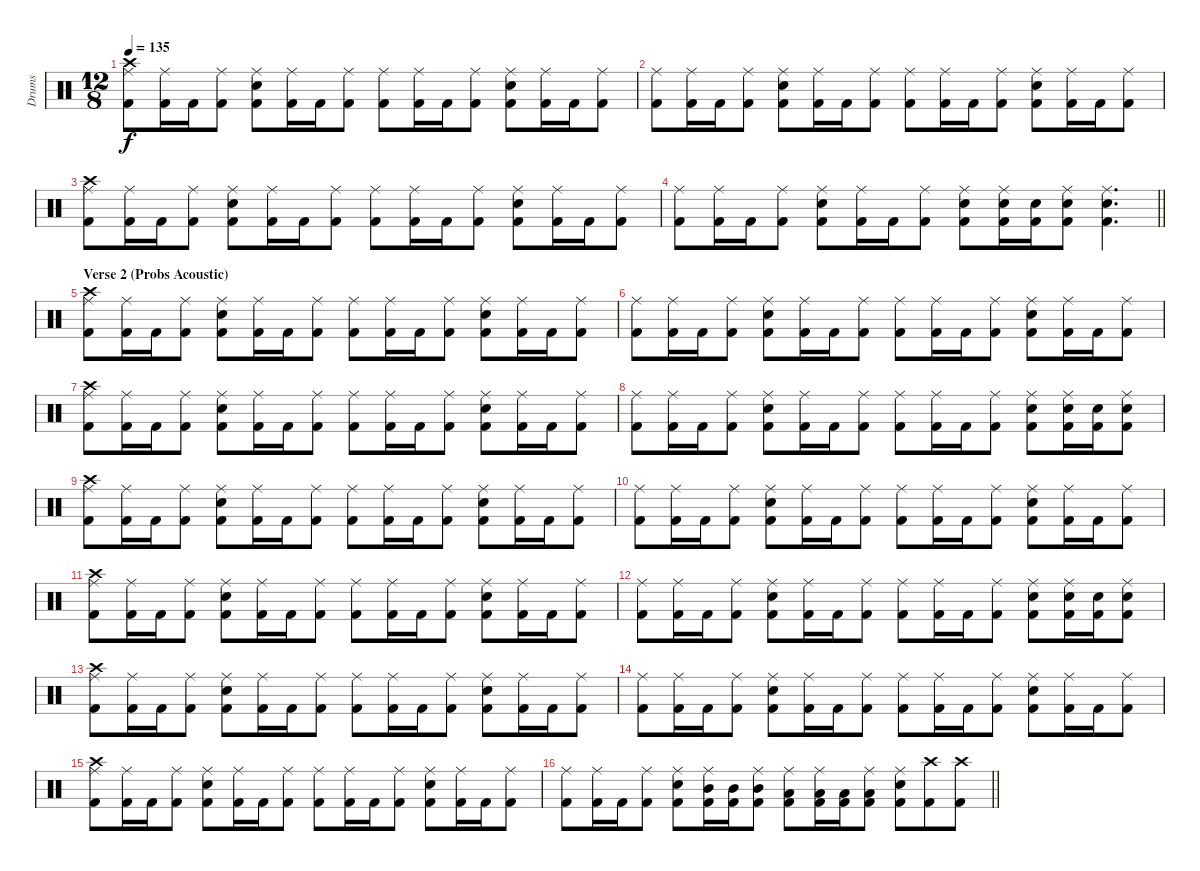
\track ("Drums" "Drums") {instrument percussion}
\staff {score}
\articulation defaults
\ts (12 8)
\tempo 135
\clef neutral
\ks c
("Crash high (hit)" "Ride (middle)" "Kick (hit) 2").8{dy f} ("Ride (middle)" "Kick (hit) 2").16 "Kick (hit) 2".16 ("Ride (middle)" "Kick (hit) 2").8 ("Ride (middle)" "Snare (hit) 2" "Kick (hit) 2").8 ("Ride (middle)" "Kick (hit) 2").16 "Kick (hit) 2".16 ("Ride (middle)" "Kick (hit) 2").8 ("Ride (middle)" "Kick (hit) 2").8 ("Ride (middle)" "Kick (hit) 2").16 "Kick (hit) 2".16 ("Ride (middle)" "Kick (hit) 2").8 ("Ride (middle)" "Snare (hit) 2" "Kick (hit) 2").8 ("Ride (middle)" "Kick (hit) 2").16 "Kick (hit) 2".16 ("Ride (middle)" "Kick (hit) 2").8 |
("Ride (middle)" "Kick (hit) 2").8 ("Ride (middle)" "Kick (hit) 2").16 "Kick (hit) 2".16 ("Ride (middle)" "Kick (hit) 2").8 ("Ride (middle)" "Snare (hit) 2" "Kick (hit) 2").8 ("Ride (middle)" "Kick (hit) 2").16 "Kick (hit) 2".16 ("Ride (middle)" "Kick (hit) 2").8 ("Ride (middle)" "Kick (hit) 2").8 ("Ride (middle)" "Kick (hit) 2").16 "Kick (hit) 2".16 ("Ride (middle)" "Kick (hit) 2").8 ("Ride (middle)" "Snare (hit) 2" "Kick (hit) 2").8 ("Ride (middle)" "Kick (hit) 2").16 "Kick (hit) 2".16 ("Ride (middle)" "Kick (hit) 2").8 |
("Crash high (hit)" "Ride (middle)" "Kick (hit) 2").8 ("Ride (middle)" "Kick (hit) 2").16 "Kick (hit) 2".16 ("Ride (middle)" "Kick (hit) 2").8 ("Ride (middle)" "Snare (hit) 2" "Kick (hit) 2").8 ("Ride (middle)" "Kick (hit) 2").16 "Kick (hit) 2".16 ("Ride (middle)" "Kick (hit) 2").8 ("Ride (middle)" "Kick (hit) 2").8 ("Ride (middle)" "Kick (hit) 2").16 "Kick (hit) 2".16 ("Ride (middle)" "Kick (hit) 2").8 ("Ride (middle)" "Snare (hit) 2" "Kick (hit) 2").8 ("Ride (middle)" "Kick (hit) 2").16 "Kick (hit) 2".16 ("Ride (middle)" "Kick (hit) 2").8 |
\barLineRight lightlight
("Ride (middle)" "Kick (hit) 2").8 ("Ride (middle)" "Kick (hit) 2").16 "Kick (hit) 2".16 ("Ride (middle)" "Kick (hit) 2").8 ("Ride (middle)" "Snare (hit) 2" "Kick (hit) 2").8 ("Ride (middle)" "Kick (hit) 2").16 "Kick (hit) 2".16 ("Ride (middle)" "Kick (hit) 2").8 ("Ride (middle)" "Snare (hit) 2" "Kick (hit) 2").8 ("Ride (middle)" "Snare (hit) 2" "Kick (hit) 2").16 ("Snare (hit) 2" "Kick (hit) 2").16 ("Ride (middle)" "Snare (hit) 2" "Kick (hit) 2").8 ("Ride (middle)" "Snare (hit) 2" "Kick (hit) 2").4{d} |
\section ("" "Verse 2 (Probs Acoustic)")
("Crash high (hit)" "Ride (middle)" "Kick (hit) 2").8 ("Ride (middle)" "Kick (hit) 2").16 "Kick (hit) 2".16 ("Ride (middle)" "Kick (hit) 2").8 ("Ride (middle)" "Snare (hit) 2" "Kick (hit) 2").8 ("Ride (middle)" "Kick (hit) 2").16 "Kick (hit) 2".16 ("Ride (middle)" "Kick (hit) 2").8 ("Ride (middle)" "Kick (hit) 2").8 ("Ride (middle)" "Kick (hit) 2").16 "Kick (hit) 2".16 ("Ride (middle)" "Kick (hit) 2").8 ("Ride (middle)" "Snare (hit) 2" "Kick (hit) 2").8 ("Ride (middle)" "Kick (hit) 2").16 "Kick (hit) 2".16 ("Ride (middle)" "Kick (hit) 2").8 |
("Ride (middle)" "Kick (hit) 2").8 ("Ride (middle)" "Kick (hit) 2").16 "Kick (hit) 2".16 ("Ride (middle)" "Kick (hit) 2").8 ("Ride (middle)" "Snare (hit) 2" "Kick (hit) 2").8 ("Ride (middle)" "Kick (hit) 2").16 "Kick (hit) 2".16 ("Ride (middle)" "Kick (hit) 2").8 ("Ride (middle)" "Kick (hit) 2").8 ("Ride (middle)" "Kick (hit) 2").16 "Kick (hit) 2".16 ("Ride (middle)" "Kick (hit) 2").8 ("Ride (middle)" "Snare (hit) 2" "Kick (hit) 2").8 ("Ride (middle)" "Kick (hit) 2").16 "Kick (hit) 2".16 ("Ride (middle)" "Kick (hit) 2").8 |
("Crash high (hit)" "Ride (middle)" "Kick (hit) 2").8 ("Ride (middle)" "Kick (hit) 2").16 "Kick (hit) 2".16 ("Ride (middle)" "Kick (hit) 2").8 ("Ride (middle)" "Snare (hit) 2" "Kick (hit) 2").8 ("Ride (middle)" "Kick (hit) 2").16 "Kick (hit) 2".16 ("Ride (middle)" "Kick (hit) 2").8 ("Ride (middle)" "Kick (hit) 2").8 ("Ride (middle)" "Kick (hit) 2").16 "Kick (hit) 2".16 ("Ride (middle)" "Kick (hit) 2").8 ("Ride (middle)" "Snare (hit) 2" "Kick (hit) 2").8 ("Ride (middle)" "Kick (hit) 2").16 "Kick (hit) 2".16 ("Ride (middle)" "Kick (hit) 2").8 |
("Ride (middle)" "Kick (hit) 2").8 ("Ride (middle)" "Kick (hit) 2").16 "Kick (hit) 2".16 ("Ride (middle)" "Kick (hit) 2").8 ("Ride (middle)" "Snare (hit) 2" "Kick (hit) 2").8 ("Ride (middle)" "Kick (hit) 2").16 "Kick (hit) 2".16 ("Ride (middle)" "Kick (hit) 2").8 ("Ride (middle)" "Kick (hit) 2").8 ("Ride (middle)" "Kick (hit) 2").16 "Kick (hit) 2".16 ("Ride (middle)" "Kick (hit) 2").8 ("Ride (middle)" "Snare (hit) 2" "Kick (hit) 2").8 ("Ride (middle)" "Snare (hit) 2" "Kick (hit) 2").16 ("Snare (hit) 2" "Kick (hit) 2").16 ("Ride (middle)" "Snare (hit) 2" "Kick (hit) 2").8 |
("Crash high (hit)" "Ride (middle)" "Kick (hit) 2").8 ("Ride (middle)" "Kick (hit) 2").16 "Kick (hit) 2".16 ("Ride (middle)" "Kick (hit) 2").8 ("Ride (middle)" "Snare (hit) 2" "Kick (hit) 2").8 ("Ride (middle)" "Kick (hit) 2").16 "Kick (hit) 2".16 ("Ride (middle)" "Kick (hit) 2").8 ("Ride (middle)" "Kick (hit) 2").8 ("Ride (middle)" "Kick (hit) 2").16 "Kick (hit) 2".16 ("Ride (middle)" "Kick (hit) 2").8 ("Ride (middle)" "Snare (hit) 2" "Kick (hit) 2").8 ("Ride (middle)" "Kick (hit) 2").16 "Kick (hit) 2".16 ("Ride (middle)" "Kick (hit) 2").8 |
("Ride (middle)" "Kick (hit) 2").8 ("Ride (middle)" "Kick (hit) 2").16 "Kick (hit) 2".16 ("Ride (middle)" "Kick (hit) 2").8 ("Ride (middle)" "Snare (hit) 2" "Kick (hit) 2").8 ("Ride (middle)" "Kick (hit) 2").16 "Kick (hit) 2".16 ("Ride (middle)" "Kick (hit) 2").8 ("Ride (middle)" "Kick (hit) 2").8 ("Ride (middle)" "Kick (hit) 2").16 "Kick (hit) 2".16 ("Ride (middle)" "Kick (hit) 2").8 ("Ride (middle)" "Snare (hit) 2" "Kick (hit) 2").8 ("Ride (middle)" "Kick (hit) 2").16 "Kick (hit) 2".16 ("Ride (middle)" "Kick (hit) 2").8 |
("Crash high (hit)" "Ride (middle)" "Kick (hit) 2").8 ("Ride (middle)" "Kick (hit) 2").16 "Kick (hit) 2".16 ("Ride (middle)" "Kick (hit) 2").8 ("Ride (middle)" "Snare (hit) 2" "Kick (hit) 2").8 ("Ride (middle)" "Kick (hit) 2").16 "Kick (hit) 2".16 ("Ride (middle)" "Kick (hit) 2").8 ("Ride (middle)" "Kick (hit) 2").8 ("Ride (middle)" "Kick (hit) 2").16 "Kick (hit) 2".16 ("Ride (middle)" "Kick (hit) 2").8 ("Ride (middle)" "Snare (hit) 2" "Kick (hit) 2").8 ("Ride (middle)" "Kick (hit) 2").16 "Kick (hit) 2".16 ("Ride (middle)" "Kick (hit) 2").8 |
("Ride (middle)" "Kick (hit) 2").8 ("Ride (middle)" "Kick (hit) 2").16 "Kick (hit) 2".16 ("Ride (middle)" "Kick (hit) 2").8 ("Ride (middle)" "Snare (hit) 2" "Kick (hit) 2").8 ("Ride (middle)" "Kick (hit) 2").16 "Kick (hit) 2".16 ("Ride (middle)" "Kick (hit) 2").8 ("Ride (middle)" "Kick (hit) 2").8 ("Ride (middle)" "Kick (hit) 2").16 "Kick (hit) 2".16 ("Ride (middle)" "Kick (hit) 2").8 ("Ride (middle)" "Snare (hit) 2" "Kick (hit) 2").8 ("Ride (middle)" "Snare (hit) 2" "Kick (hit) 2").16 ("Snare (hit) 2" "Kick (hit) 2").16 ("Ride (middle)" "Snare (hit) 2" "Kick (hit) 2").8 |
("Crash high (hit)" "Ride (middle)" "Kick (hit) 2").8 ("Ride (middle)" "Kick (hit) 2").16 "Kick (hit) 2".16 ("Ride (middle)" "Kick (hit) 2").8 ("Ride (middle)" "Snare (hit) 2" "Kick (hit) 2").8 ("Ride (middle)" "Kick (hit) 2").16 "Kick (hit) 2".16 ("Ride (middle)" "Kick (hit) 2").8 ("Ride (middle)" "Kick (hit) 2").8 ("Ride (middle)" "Kick (hit) 2").16 "Kick (hit) 2".16 ("Ride (middle)" "Kick (hit) 2").8 ("Ride (middle)" "Snare (hit) 2" "Kick (hit) 2").8 ("Ride (middle)" "Kick (hit) 2").16 "Kick (hit) 2".16 ("Ride (middle)" "Kick (hit) 2").8 |
("Ride (middle)" "Kick (hit) 2").8 ("Ride (middle)" "Kick (hit) 2").16 "Kick (hit) 2".16 ("Ride (middle)" "Kick (hit) 2").8 ("Ride (middle)" "Snare (hit) 2" "Kick (hit) 2").8 ("Ride (middle)" "Kick (hit) 2").16 "Kick (hit) 2".16 ("Ride (middle)" "Kick (hit) 2").8 ("Ride (middle)" "Kick (hit) 2").8 ("Ride (middle)" "Kick (hit) 2").16 "Kick (hit) 2".16 ("Ride (middle)" "Kick (hit) 2").8 ("Ride (middle)" "Snare (hit) 2" "Kick (hit) 2").8 ("Ride (middle)" "Kick (hit) 2").16 "Kick (hit) 2".16 ("Ride (middle)" "Kick (hit) 2").8 |
("Crash high (hit)" "Ride (middle)" "Kick (hit) 2").8 ("Ride (middle)" "Kick (hit) 2").16 "Kick (hit) 2".16 ("Ride (middle)" "Kick (hit) 2").8 ("Ride (middle)" "Snare (hit) 2" "Kick (hit) 2").8 ("Ride (middle)" "Kick (hit) 2").16 "Kick (hit) 2".16 ("Ride (middle)" "Kick (hit) 2").8 ("Ride (middle)" "Kick (hit) 2").8 ("Ride (middle)" "Kick (hit) 2").16 "Kick (hit) 2".16 ("Ride (middle)" "Kick (hit) 2").8 ("Ride (middle)" "Snare (hit) 2" "Kick (hit) 2").8 ("Ride (middle)" "Kick (hit) 2").16 "Kick (hit) 2".16 ("Ride (middle)" "Kick (hit) 2").8 |
\barLineRight lightlight
("Ride (middle)" "Kick (hit) 2").8 ("Ride (middle)" "Kick (hit) 2").16 "Kick (hit) 2".16 ("Ride (middle)" "Kick (hit) 2").8 ("Ride (middle)" "Snare (hit) 2" "Kick (hit) 2").8 ("Ride (middle)" "Mid Tom (hit)" "Kick (hit) 2").16 ("Mid Tom (hit)" "Kick (hit) 2").16 ("Ride (middle)" "Mid Tom (hit)" "Kick (hit) 2").8 ("Ride (middle)" "Low Tom (hit)" "Kick (hit) 2").8 ("Ride (middle)" "Low Tom (hit)" "Kick (hit) 2").16 ("Low Tom (hit)" "Kick (hit) 2").16 ("Ride (middle)" "Low Tom (hit)" "Kick (hit) 2").8 ("Ride (middle)" "Snare (hit) 2" "Kick (hit) 2").8 ("Crash high (hit)" "Kick (hit) 2").8 ("Crash high (hit)" "Kick (hit) 2").8
